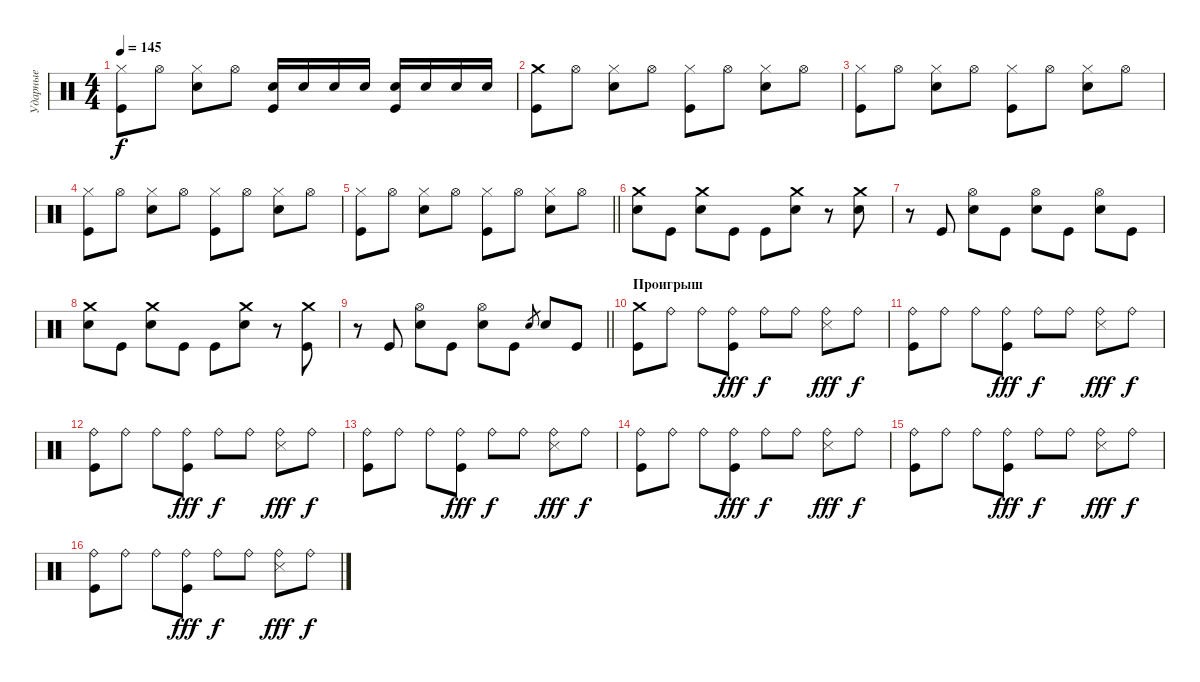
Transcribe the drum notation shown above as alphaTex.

\track ("Ударные" "Ударные") {instrument percussion}
\staff {score}
\articulation defaults
\ts (4 4)
\tempo 145
\clef neutral
\ks c
("Hi-Hat (closed)" "Kick (hit)").8{dy f} "Hi-Hat (open)".8 ("Hi-Hat (closed)" "Electric Snare (hit)").8 "Hi-Hat (open)".8 ("Electric Snare (hit)" "Kick (hit)").16 "Electric Snare (hit)".16 "Electric Snare (hit)".16 "Electric Snare (hit)".16 ("Electric Snare (hit)" "Kick (hit)").16 "Electric Snare (hit)".16 "Electric Snare (hit)".16 "Electric Snare (hit)".16 |
("Crash medium (hit)" "Kick (hit)").8 "Hi-Hat (open)".8 ("Hi-Hat (closed)" "Electric Snare (hit)").8 "Hi-Hat (open)".8 ("Hi-Hat (closed)" "Kick (hit)").8 "Hi-Hat (open)".8 ("Hi-Hat (closed)" "Electric Snare (hit)").8 "Hi-Hat (open)".8 |
("Hi-Hat (closed)" "Kick (hit)").8 "Hi-Hat (open)".8 ("Hi-Hat (closed)" "Electric Snare (hit)").8 "Hi-Hat (open)".8 ("Hi-Hat (closed)" "Kick (hit)").8 "Hi-Hat (open)".8 ("Hi-Hat (closed)" "Electric Snare (hit)").8 "Hi-Hat (open)".8 |
("Hi-Hat (closed)" "Kick (hit)").8 "Hi-Hat (open)".8 ("Hi-Hat (closed)" "Electric Snare (hit)").8 "Hi-Hat (open)".8 ("Hi-Hat (closed)" "Kick (hit)").8 "Hi-Hat (open)".8 ("Hi-Hat (closed)" "Electric Snare (hit)").8 "Hi-Hat (open)".8 |
\barLineRight lightlight
("Hi-Hat (closed)" "Kick (hit)").8 "Hi-Hat (open)".8 ("Hi-Hat (closed)" "Electric Snare (hit)").8 "Hi-Hat (open)".8 ("Hi-Hat (closed)" "Kick (hit)").8 "Hi-Hat (open)".8 ("Hi-Hat (closed)" "Electric Snare (hit)").8 "Hi-Hat (open)".8 |
\section ("" " ")
("Crash medium (hit)" "Electric Snare (hit)").8 "Kick (hit)".8 ("Crash medium (hit)" "Electric Snare (hit)").8 "Kick (hit)".8 "Kick (hit)".8 ("Crash medium (hit)" "Electric Snare (hit)").8 r.8 ("Crash medium (hit)" "Electric Snare (hit)").8 |
r.8 "Kick (hit)".8 ("Hi-Hat (open)" "Electric Snare (hit)").8 "Kick (hit)".8 ("Hi-Hat (open)" "Electric Snare (hit)").8 "Kick (hit)".8 ("Hi-Hat (open)" "Electric Snare (hit)").8 "Kick (hit)".8 |
("Crash medium (hit)" "Electric Snare (hit)").8 "Kick (hit)".8 ("Crash medium (hit)" "Electric Snare (hit)").8 "Kick (hit)".8 "Kick (hit)".8 ("Crash medium (hit)" "Electric Snare (hit)").8 r.8 ("Crash medium (hit)" "Kick (hit)").8 |
\barLineRight lightlight
r.8 "Kick (hit)".8 ("Hi-Hat (open)" "Electric Snare (hit)").8 "Kick (hit)".8 ("Hi-Hat (open)" "Electric Snare (hit)").8 "Kick (hit)".8 "Electric Snare (hit)".8{gr} "Electric Snare (hit)".8 "Kick (hit)".8 |
\section ("" "Проигрыш")
("Crash medium (hit)" "Kick (hit)").8 "Ride (bell)".8 "Ride (bell)".8 ("Ride (bell)" "Kick (hit)").8{dy fff} "Ride (bell)".8{dy f} "Ride (bell)".8 ("Ride (bell)" "Snare (side stick) 3").8{dy fff} "Ride (bell)".8{dy f} |
("Ride (bell)" "Kick (hit)").8 "Ride (bell)".8 "Ride (bell)".8 ("Ride (bell)" "Kick (hit)").8{dy fff} "Ride (bell)".8{dy f} "Ride (bell)".8 ("Ride (bell)" "Snare (side stick) 3").8{dy fff} "Ride (bell)".8{dy f} |
("Ride (bell)" "Kick (hit)").8 "Ride (bell)".8 "Ride (bell)".8 ("Ride (bell)" "Kick (hit)").8{dy fff} "Ride (bell)".8{dy f} "Ride (bell)".8 ("Ride (bell)" "Snare (side stick) 3").8{dy fff} "Ride (bell)".8{dy f} |
("Ride (bell)" "Kick (hit)").8 "Ride (bell)".8 "Ride (bell)".8 ("Ride (bell)" "Kick (hit)").8{dy fff} "Ride (bell)".8{dy f} "Ride (bell)".8 ("Ride (bell)" "Snare (side stick) 3").8{dy fff} "Ride (bell)".8{dy f} |
("Ride (bell)" "Kick (hit)").8 "Ride (bell)".8 "Ride (bell)".8 ("Ride (bell)" "Kick (hit)").8{dy fff} "Ride (bell)".8{dy f} "Ride (bell)".8 ("Ride (bell)" "Snare (side stick) 3").8{dy fff} "Ride (bell)".8{dy f} |
("Ride (bell)" "Kick (hit)").8 "Ride (bell)".8 "Ride (bell)".8 ("Ride (bell)" "Kick (hit)").8{dy fff} "Ride (bell)".8{dy f} "Ride (bell)".8 ("Ride (bell)" "Snare (side stick) 3").8{dy fff} "Ride (bell)".8{dy f} |
("Ride (bell)" "Kick (hit)").8 "Ride (bell)".8 "Ride (bell)".8 ("Ride (bell)" "Kick (hit)").8{dy fff} "Ride (bell)".8{dy f} "Ride (bell)".8 ("Ride (bell)" "Snare (side stick) 3").8{dy fff} "Ride (bell)".8{dy f}
